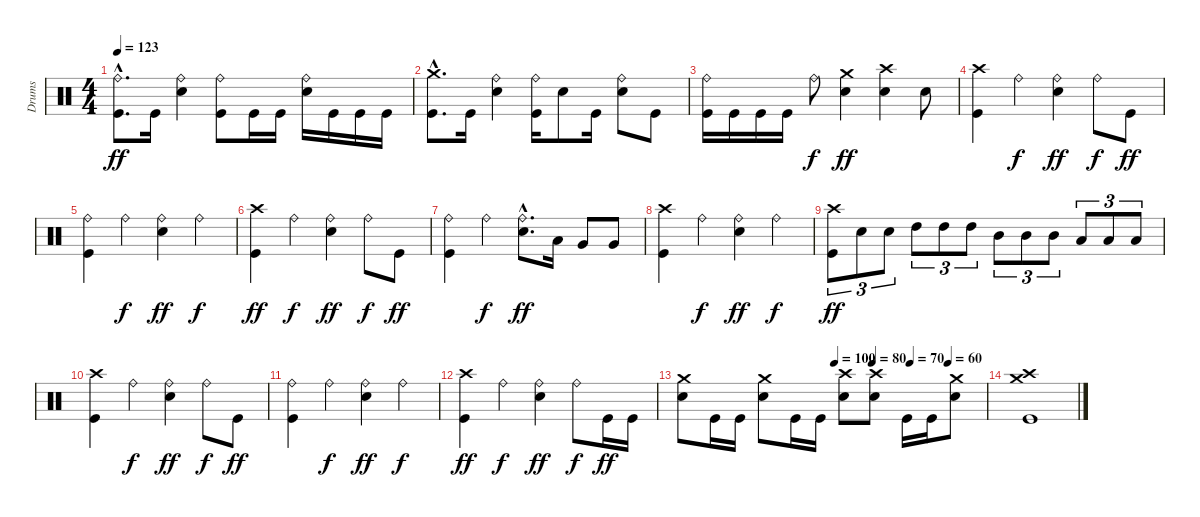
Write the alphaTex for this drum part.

\track ("Drums" "Drums") {instrument percussion}
\staff {score}
\articulation defaults
\ts (4 4)
\tempo 123
\clef neutral
\ks c
("Ride (bell)"{hac} "Kick (hit)"{hac}).8{d dy ff} "Kick (hit)".16 ("Ride (bell)" "Electric Snare (hit)").4 ("Ride (bell)" "Kick (hit)").8 "Kick (hit)".16 "Kick (hit)".16 ("Ride (bell)" "Electric Snare (hit)").16 "Kick (hit)".16 "Kick (hit)".16 "Kick (hit)".16 |
("Crash medium (hit)"{hac} "Kick (hit)"{hac}).8{d} "Kick (hit)".16 ("Ride (bell)" "Electric Snare (hit)").4 ("Ride (bell)" "Kick (hit)").16 "Electric Snare (hit)".8 "Kick (hit)".16 ("Ride (bell)" "Electric Snare (hit)").8 "Kick (hit)".8 |
("Ride (bell)" "Kick (hit)").16 "Kick (hit)".16 "Kick (hit)".16 "Kick (hit)".16 "Ride (bell)".8{dy f} ("Crash medium (hit)" "Electric Snare (hit)").4{dy ff} ("Crash high (hit)" "Electric Snare (hit)").4 "Electric Snare (hit)".8 |
("Crash high (hit)" "Kick (hit)").4 "Ride (bell)".4{dy f} ("Ride (bell)" "Electric Snare (hit)").4{dy ff} "Ride (bell)".8{dy f} "Kick (hit)".8{dy ff} |
("Ride (bell)" "Kick (hit)").4 "Ride (bell)".4{dy f} ("Ride (bell)" "Electric Snare (hit)").4{dy ff} "Ride (bell)".4{dy f} |
("Crash high (hit)" "Kick (hit)").4{dy ff} "Ride (bell)".4{dy f} ("Ride (bell)" "Electric Snare (hit)").4{dy ff} "Ride (bell)".8{dy f} "Kick (hit)".8{dy ff} |
("Ride (bell)" "Kick (hit)").4 "Ride (bell)".4{dy f} ("Ride (bell)"{hac} "Electric Snare (hit)"{hac}).8{d dy ff} "Low Tom (hit)".16 "Very Low Tom (hit)".8 "Very Low Tom (hit)".8 |
("Crash high (hit)" "Kick (hit)").4 "Ride (bell)".4{dy f} ("Ride (bell)" "Electric Snare (hit)").4{dy ff} "Ride (bell)".4{dy f} |
("Crash high (hit)" "Kick (hit)").8{tu (3 2) dy ff} "Electric Snare (hit)".8{tu (3 2)} "Electric Snare (hit)".8{tu (3 2)} "High Tom (hit)".8{tu (3 2)} "High Tom (hit)".8{tu (3 2)} "High Tom (hit)".8{tu (3 2)} "Mid Tom (hit)".8{tu (3 2)} "Mid Tom (hit)".8{tu (3 2)} "Mid Tom (hit)".8{tu (3 2)} "Low Tom (hit)".8{tu (3 2)} "Low Tom (hit)".8{tu (3 2)} "Low Tom (hit)".8{tu (3 2)} |
("Crash high (hit)" "Kick (hit)").4 "Ride (bell)".4{dy f} ("Ride (bell)" "Electric Snare (hit)").4{dy ff} "Ride (bell)".8{dy f} "Kick (hit)".8{dy ff} |
("Ride (bell)" "Kick (hit)").4 "Ride (bell)".4{dy f} ("Ride (bell)" "Electric Snare (hit)").4{dy ff} "Ride (bell)".4{dy f} |
("Crash high (hit)" "Kick (hit)").4{dy ff} "Ride (bell)".4{dy f} ("Ride (bell)" "Electric Snare (hit)").4{dy ff} "Ride (bell)".8{dy f} "Kick (hit)".16{dy ff} "Kick (hit)".16 |
\tempo (100 0.5)
\tempo (80 0.625)
\tempo (70 0.75)
\tempo (60 0.875)
("Crash medium (hit)" "Electric Snare (hit)").8 "Kick (hit)".16 "Kick (hit)".16 ("Crash medium (hit)" "Electric Snare (hit)").8 "Kick (hit)".16 "Kick (hit)".16 ("Crash high (hit)" "Electric Snare (hit)").8 ("Crash high (hit)" "Electric Snare (hit)").8 "Kick (hit)".16 "Kick (hit)".16 ("Crash medium (hit)" "Electric Snare (hit)").8 |
("Crash high (hit)" "Crash medium (hit)" "Kick (hit)").1
